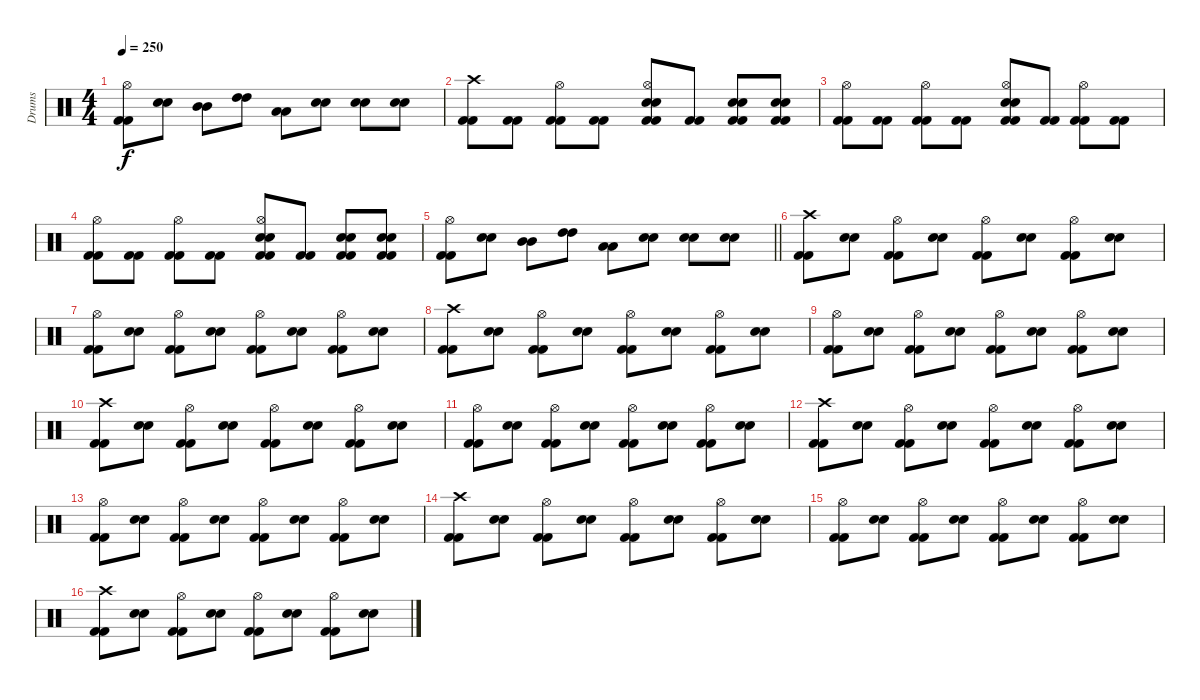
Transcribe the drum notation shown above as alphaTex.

\track ("Drums" "Drums") {instrument percussion}
\staff {score}
\articulation defaults
\ts (4 4)
\tempo 250
\clef neutral
\ks c
("Kick (hit) 2" "Kick (hit) 2" "Hi-Hat (open)").8{dy f} ("Electric Snare (hit)" "Electric Snare (hit)").8 ("Mid Tom (hit)" "Mid Tom (hit)").8 ("High Tom (hit)" "High Tom (hit)").8 ("Low Floor Tom (hit)" "Low Floor Tom (hit)").8 ("Electric Snare (hit)" "Electric Snare (hit)").8 ("Electric Snare (hit)" "Electric Snare (hit)").8 ("Electric Snare (hit)" "Electric Snare (hit)").8 |
("Kick (hit) 2" "Kick (hit) 2" "Crash high (hit)").8 ("Kick (hit) 2" "Kick (hit) 2").8 ("Kick (hit) 2" "Kick (hit) 2" "Hi-Hat (open)").8 ("Kick (hit) 2" "Kick (hit) 2").8 ("Kick (hit) 2" "Kick (hit) 2" "Electric Snare (hit)" "Electric Snare (hit)" "Hi-Hat (open)").8 ("Kick (hit) 2" "Kick (hit) 2").8 ("Kick (hit) 2" "Kick (hit) 2" "Electric Snare (hit)" "Electric Snare (hit)").8 ("Kick (hit) 2" "Kick (hit) 2" "Electric Snare (hit)" "Electric Snare (hit)").8 |
("Kick (hit) 2" "Kick (hit) 2" "Hi-Hat (open)").8 ("Kick (hit) 2" "Kick (hit) 2").8 ("Kick (hit) 2" "Kick (hit) 2" "Hi-Hat (open)").8 ("Kick (hit) 2" "Kick (hit) 2").8 ("Kick (hit) 2" "Kick (hit) 2" "Electric Snare (hit)" "Electric Snare (hit)" "Hi-Hat (open)").8 ("Kick (hit) 2" "Kick (hit) 2").8 ("Kick (hit) 2" "Kick (hit) 2" "Hi-Hat (open)").8 ("Kick (hit) 2" "Kick (hit) 2").8 |
("Kick (hit) 2" "Kick (hit) 2" "Hi-Hat (open)").8 ("Kick (hit) 2" "Kick (hit) 2").8 ("Kick (hit) 2" "Kick (hit) 2" "Hi-Hat (open)").8 ("Kick (hit) 2" "Kick (hit) 2").8 ("Kick (hit) 2" "Kick (hit) 2" "Electric Snare (hit)" "Electric Snare (hit)" "Hi-Hat (open)").8 ("Kick (hit) 2" "Kick (hit) 2").8 ("Kick (hit) 2" "Kick (hit) 2" "Electric Snare (hit)" "Electric Snare (hit)").8 ("Kick (hit) 2" "Kick (hit) 2" "Electric Snare (hit)" "Electric Snare (hit)").8 |
\barLineRight lightlight
("Kick (hit) 2" "Kick (hit) 2" "Hi-Hat (open)").8 ("Electric Snare (hit)" "Electric Snare (hit)").8 ("Mid Tom (hit)" "Mid Tom (hit)").8 ("High Tom (hit)" "High Tom (hit)").8 ("Low Floor Tom (hit)" "Low Floor Tom (hit)").8 ("Electric Snare (hit)" "Electric Snare (hit)").8 ("Electric Snare (hit)" "Electric Snare (hit)").8 ("Electric Snare (hit)" "Electric Snare (hit)").8 |
("Kick (hit) 2" "Kick (hit) 2" "Crash high (hit)").8 ("Electric Snare (hit)" "Electric Snare (hit)").8 ("Kick (hit) 2" "Kick (hit) 2" "Hi-Hat (open)").8 ("Electric Snare (hit)" "Electric Snare (hit)").8 ("Kick (hit) 2" "Kick (hit) 2" "Hi-Hat (open)").8 ("Electric Snare (hit)" "Electric Snare (hit)").8 ("Kick (hit) 2" "Kick (hit) 2" "Hi-Hat (open)").8 ("Electric Snare (hit)" "Electric Snare (hit)").8 |
("Kick (hit) 2" "Kick (hit) 2" "Hi-Hat (open)").8 ("Electric Snare (hit)" "Electric Snare (hit)").8 ("Kick (hit) 2" "Kick (hit) 2" "Hi-Hat (open)").8 ("Electric Snare (hit)" "Electric Snare (hit)").8 ("Kick (hit) 2" "Kick (hit) 2" "Hi-Hat (open)").8 ("Electric Snare (hit)" "Electric Snare (hit)").8 ("Kick (hit) 2" "Kick (hit) 2" "Hi-Hat (open)").8 ("Electric Snare (hit)" "Electric Snare (hit)").8 |
("Kick (hit) 2" "Kick (hit) 2" "Crash high (hit)").8 ("Electric Snare (hit)" "Electric Snare (hit)").8 ("Kick (hit) 2" "Kick (hit) 2" "Hi-Hat (open)").8 ("Electric Snare (hit)" "Electric Snare (hit)").8 ("Kick (hit) 2" "Kick (hit) 2" "Hi-Hat (open)").8 ("Electric Snare (hit)" "Electric Snare (hit)").8 ("Kick (hit) 2" "Kick (hit) 2" "Hi-Hat (open)").8 ("Electric Snare (hit)" "Electric Snare (hit)").8 |
("Kick (hit) 2" "Kick (hit) 2" "Hi-Hat (open)").8 ("Electric Snare (hit)" "Electric Snare (hit)").8 ("Kick (hit) 2" "Kick (hit) 2" "Hi-Hat (open)").8 ("Electric Snare (hit)" "Electric Snare (hit)").8 ("Kick (hit) 2" "Kick (hit) 2" "Hi-Hat (open)").8 ("Electric Snare (hit)" "Electric Snare (hit)").8 ("Kick (hit) 2" "Kick (hit) 2" "Hi-Hat (open)").8 ("Electric Snare (hit)" "Electric Snare (hit)").8 |
("Kick (hit) 2" "Kick (hit) 2" "Crash high (hit)").8 ("Electric Snare (hit)" "Electric Snare (hit)").8 ("Kick (hit) 2" "Kick (hit) 2" "Hi-Hat (open)").8 ("Electric Snare (hit)" "Electric Snare (hit)").8 ("Kick (hit) 2" "Kick (hit) 2" "Hi-Hat (open)").8 ("Electric Snare (hit)" "Electric Snare (hit)").8 ("Kick (hit) 2" "Kick (hit) 2" "Hi-Hat (open)").8 ("Electric Snare (hit)" "Electric Snare (hit)").8 |
("Kick (hit) 2" "Kick (hit) 2" "Hi-Hat (open)").8 ("Electric Snare (hit)" "Electric Snare (hit)").8 ("Kick (hit) 2" "Kick (hit) 2" "Hi-Hat (open)").8 ("Electric Snare (hit)" "Electric Snare (hit)").8 ("Kick (hit) 2" "Kick (hit) 2" "Hi-Hat (open)").8 ("Electric Snare (hit)" "Electric Snare (hit)").8 ("Kick (hit) 2" "Kick (hit) 2" "Hi-Hat (open)").8 ("Electric Snare (hit)" "Electric Snare (hit)").8 |
("Kick (hit) 2" "Kick (hit) 2" "Crash high (hit)").8 ("Electric Snare (hit)" "Electric Snare (hit)").8 ("Kick (hit) 2" "Kick (hit) 2" "Hi-Hat (open)").8 ("Electric Snare (hit)" "Electric Snare (hit)").8 ("Kick (hit) 2" "Kick (hit) 2" "Hi-Hat (open)").8 ("Electric Snare (hit)" "Electric Snare (hit)").8 ("Kick (hit) 2" "Kick (hit) 2" "Hi-Hat (open)").8 ("Electric Snare (hit)" "Electric Snare (hit)").8 |
("Kick (hit) 2" "Kick (hit) 2" "Hi-Hat (open)").8 ("Electric Snare (hit)" "Electric Snare (hit)").8 ("Kick (hit) 2" "Kick (hit) 2" "Hi-Hat (open)").8 ("Electric Snare (hit)" "Electric Snare (hit)").8 ("Kick (hit) 2" "Kick (hit) 2" "Hi-Hat (open)").8 ("Electric Snare (hit)" "Electric Snare (hit)").8 ("Kick (hit) 2" "Kick (hit) 2" "Hi-Hat (open)").8 ("Electric Snare (hit)" "Electric Snare (hit)").8 |
("Kick (hit) 2" "Kick (hit) 2" "Crash high (hit)").8 ("Electric Snare (hit)" "Electric Snare (hit)").8 ("Kick (hit) 2" "Kick (hit) 2" "Hi-Hat (open)").8 ("Electric Snare (hit)" "Electric Snare (hit)").8 ("Kick (hit) 2" "Kick (hit) 2" "Hi-Hat (open)").8 ("Electric Snare (hit)" "Electric Snare (hit)").8 ("Kick (hit) 2" "Kick (hit) 2" "Hi-Hat (open)").8 ("Electric Snare (hit)" "Electric Snare (hit)").8 |
("Kick (hit) 2" "Kick (hit) 2" "Hi-Hat (open)").8 ("Electric Snare (hit)" "Electric Snare (hit)").8 ("Kick (hit) 2" "Kick (hit) 2" "Hi-Hat (open)").8 ("Electric Snare (hit)" "Electric Snare (hit)").8 ("Kick (hit) 2" "Kick (hit) 2" "Hi-Hat (open)").8 ("Electric Snare (hit)" "Electric Snare (hit)").8 ("Kick (hit) 2" "Kick (hit) 2" "Hi-Hat (open)").8 ("Electric Snare (hit)" "Electric Snare (hit)").8 |
("Kick (hit) 2" "Kick (hit) 2" "Crash high (hit)").8 ("Electric Snare (hit)" "Electric Snare (hit)").8 ("Kick (hit) 2" "Kick (hit) 2" "Hi-Hat (open)").8 ("Electric Snare (hit)" "Electric Snare (hit)").8 ("Kick (hit) 2" "Kick (hit) 2" "Hi-Hat (open)").8 ("Electric Snare (hit)" "Electric Snare (hit)").8 ("Kick (hit) 2" "Kick (hit) 2" "Hi-Hat (open)").8 ("Electric Snare (hit)" "Electric Snare (hit)").8
